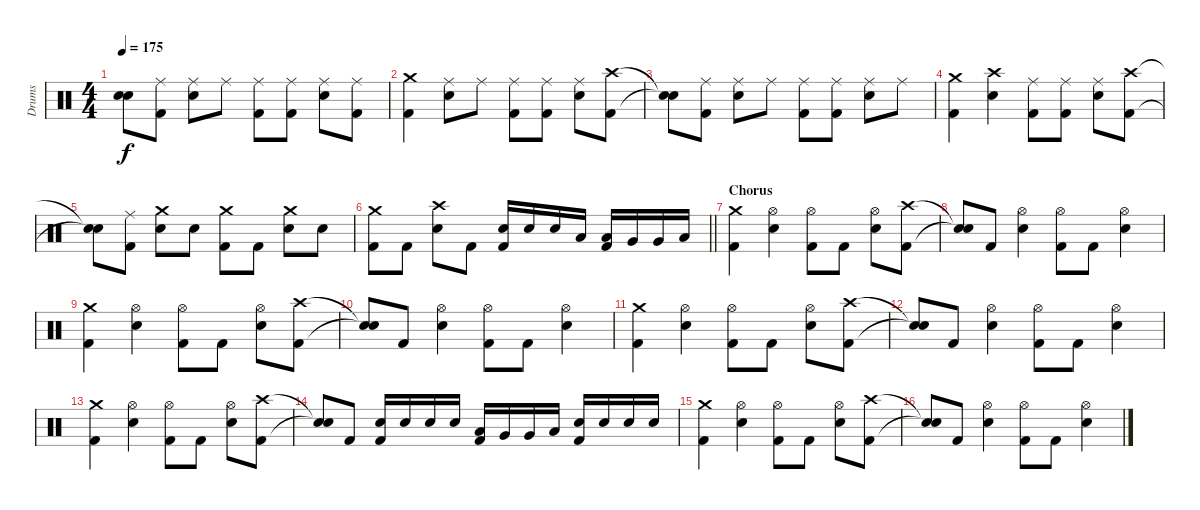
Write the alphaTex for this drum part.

\track ("Drums" "Drums") {instrument percussion}
\staff {score}
\articulation defaults
\ts (4 4)
\tempo 175
\clef neutral
\ks c
("Snare (hit)"{t} "Snare (hit)"{t}).8{dy f} ("Ride (middle)" "Kick (hit) 2").8 ("Ride (middle)" "Electric Snare (hit)").8 "Ride (middle)".8 ("Ride (middle)" "Kick (hit) 2").8 ("Ride (middle)" "Kick (hit) 2").8 ("Ride (middle)" "Electric Snare (hit)").8 ("Ride (middle)" "Kick (hit) 2").8 |
("Crash medium (hit)" "Kick (hit) 2").4 ("Ride (middle)" "Electric Snare (hit)").8 "Ride (middle)".8 ("Ride (middle)" "Kick (hit) 2").8 ("Ride (middle)" "Kick (hit) 2").8 ("Ride (middle)" "Electric Snare (hit)").8 ("Crash high (hit)" "Kick (hit) 2").8 |
("Snare (hit)"{t} "Snare (hit)"{t}).8 ("Ride (middle)" "Kick (hit) 2").8 ("Ride (middle)" "Electric Snare (hit)").8 "Ride (middle)".8 ("Ride (middle)" "Kick (hit) 2").8 ("Ride (middle)" "Kick (hit) 2").8 ("Ride (middle)" "Electric Snare (hit)").8 "Ride (middle)".8 |
("Crash medium (hit)" "Kick (hit) 2").4 ("Crash high (hit)" "Electric Snare (hit)").4 ("Ride (middle)" "Kick (hit) 2").8 ("Ride (middle)" "Kick (hit) 2").8 ("Ride (middle)" "Electric Snare (hit)").8 ("Crash high (hit)" "Kick (hit) 2").8 |
("Snare (hit)"{t} "Snare (hit)"{t}).8 ("Ride (middle)" "Kick (hit) 2").8 ("Crash medium (hit)" "Electric Snare (hit)").8 "Electric Snare (hit)".8 ("Crash medium (hit)" "Kick (hit) 2").8 "Kick (hit) 2".8 ("Crash medium (hit)" "Electric Snare (hit)").8 "Electric Snare (hit)".8 |
\barLineRight lightlight
("Crash medium (hit)" "Kick (hit) 2").8 "Kick (hit) 2".8 ("Crash high (hit)" "Electric Snare (hit)").8 "Kick (hit) 2".8 ("Electric Snare (hit)" "Kick (hit) 2").16 "Electric Snare (hit)".16 "Electric Snare (hit)".16 "Low Tom (hit)".16 ("Low Tom (hit)" "Kick (hit) 2").16 "Very Low Tom (hit)".16 "Very Low Tom (hit)".16 "Low Floor Tom (hit)".16 |
\section ("" "Chorus")
("Crash medium (hit)" "Kick (hit) 2").4 ("Hi-Hat (open)" "Electric Snare (hit)").4 ("Hi-Hat (open)" "Kick (hit) 2").8 "Kick (hit) 2".8 ("Hi-Hat (open)" "Electric Snare (hit)").8 ("Crash high (hit)" "Kick (hit) 2").8 |
("Snare (hit)"{t} "Snare (hit)"{t}).8 "Kick (hit) 2".8 ("Hi-Hat (open)" "Electric Snare (hit)").4 ("Hi-Hat (open)" "Kick (hit) 2").8 "Kick (hit) 2".8 ("Hi-Hat (open)" "Electric Snare (hit)").4 |
("Crash medium (hit)" "Kick (hit) 2").4 ("Hi-Hat (open)" "Electric Snare (hit)").4 ("Hi-Hat (open)" "Kick (hit) 2").8 "Kick (hit) 2".8 ("Hi-Hat (open)" "Electric Snare (hit)").8 ("Crash high (hit)" "Kick (hit) 2").8 |
("Snare (hit)"{t} "Snare (hit)"{t}).8 "Kick (hit) 2".8 ("Hi-Hat (open)" "Electric Snare (hit)").4 ("Hi-Hat (open)" "Kick (hit) 2").8 "Kick (hit) 2".8 ("Hi-Hat (open)" "Electric Snare (hit)").4 |
("Crash medium (hit)" "Kick (hit) 2").4 ("Hi-Hat (open)" "Electric Snare (hit)").4 ("Hi-Hat (open)" "Kick (hit) 2").8 "Kick (hit) 2".8 ("Hi-Hat (open)" "Electric Snare (hit)").8 ("Crash high (hit)" "Kick (hit) 2").8 |
("Snare (hit)"{t} "Snare (hit)"{t}).8 "Kick (hit) 2".8 ("Hi-Hat (open)" "Electric Snare (hit)").4 ("Hi-Hat (open)" "Kick (hit) 2").8 "Kick (hit) 2".8 ("Hi-Hat (open)" "Electric Snare (hit)").4 |
("Crash medium (hit)" "Kick (hit) 2").4 ("Hi-Hat (open)" "Electric Snare (hit)").4 ("Hi-Hat (open)" "Kick (hit) 2").8 "Kick (hit) 2".8 ("Hi-Hat (open)" "Electric Snare (hit)").8 ("Crash high (hit)" "Kick (hit) 2").8 |
("Snare (hit)"{t} "Snare (hit)"{t}).8 "Kick (hit) 2".8 ("Electric Snare (hit)" "Kick (hit) 2").16 "Electric Snare (hit)".16 "Electric Snare (hit)".16 "Electric Snare (hit)".16 ("Low Tom (hit)" "Kick (hit) 2").16 "Very Low Tom (hit)".16 "Very Low Tom (hit)".16 "Low Floor Tom (hit)".16 ("Electric Snare (hit)" "Kick (hit) 2").16 "Electric Snare (hit)".16 "Electric Snare (hit)".16 "Electric Snare (hit)".16 |
("Crash medium (hit)" "Kick (hit) 2").4 ("Hi-Hat (open)" "Electric Snare (hit)").4 ("Hi-Hat (open)" "Kick (hit) 2").8 "Kick (hit) 2".8 ("Hi-Hat (open)" "Electric Snare (hit)").8 ("Crash high (hit)" "Kick (hit) 2").8 |
("Snare (hit)"{t} "Snare (hit)"{t}).8 "Kick (hit) 2".8 ("Hi-Hat (open)" "Electric Snare (hit)").4 ("Hi-Hat (open)" "Kick (hit) 2").8 "Kick (hit) 2".8 ("Hi-Hat (open)" "Electric Snare (hit)").4
